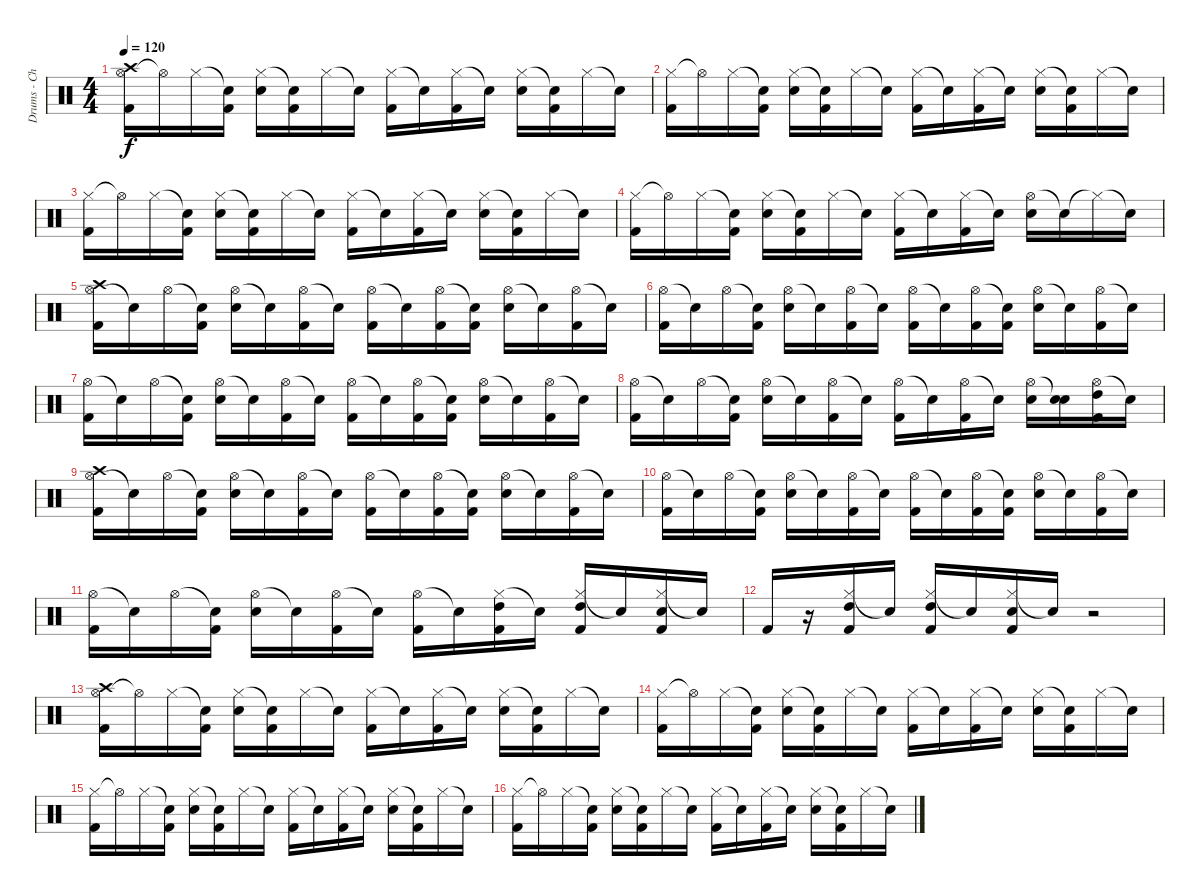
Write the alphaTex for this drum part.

\track ("Drums - Chad" "Drums - Ch") {instrument percussion}
\staff {score}
\articulation defaults
\ts (4 4)
\tempo 120
\clef neutral
\ks c
("Hi-Hat (open)" "Kick (hit) 2" "Crash high (hit)").16{dy f} "Hi-Hat (open)"{t}.16 "Hi-Hat (closed)".16 ("Snare (hit)"{t} "Kick (hit) 2").16 ("Hi-Hat (closed)" "Electric Snare (hit)").16 ("Snare (hit)"{t} "Kick (hit) 2").16 "Hi-Hat (closed)".16 "Snare (hit)"{t}.16 ("Hi-Hat (closed)" "Kick (hit) 2").16 "Snare (hit)"{t}.16 ("Hi-Hat (closed)" "Kick (hit) 2").16 "Snare (hit)"{t}.16 ("Hi-Hat (closed)" "Electric Snare (hit)").16 ("Snare (hit)"{t} "Kick (hit) 2").16 "Hi-Hat (closed)".16 "Snare (hit)"{t}.16 |
("Hi-Hat (closed)" "Kick (hit) 2").16 "Hi-Hat (open)"{t}.16 "Hi-Hat (closed)".16 ("Snare (hit)"{t} "Kick (hit) 2").16 ("Hi-Hat (closed)" "Electric Snare (hit)").16 ("Snare (hit)"{t} "Kick (hit) 2").16 "Hi-Hat (closed)".16 "Snare (hit)"{t}.16 ("Hi-Hat (closed)" "Kick (hit) 2").16 "Snare (hit)"{t}.16 ("Hi-Hat (closed)" "Kick (hit) 2").16 "Snare (hit)"{t}.16 ("Hi-Hat (closed)" "Electric Snare (hit)").16 ("Snare (hit)"{t} "Kick (hit) 2").16 "Hi-Hat (closed)".16 "Snare (hit)"{t}.16 |
("Hi-Hat (closed)" "Kick (hit) 2").16 "Hi-Hat (open)"{t}.16 "Hi-Hat (closed)".16 ("Snare (hit)"{t} "Kick (hit) 2").16 ("Hi-Hat (closed)" "Electric Snare (hit)").16 ("Snare (hit)"{t} "Kick (hit) 2").16 "Hi-Hat (closed)".16 "Snare (hit)"{t}.16 ("Hi-Hat (closed)" "Kick (hit) 2").16 "Snare (hit)"{t}.16 ("Hi-Hat (closed)" "Kick (hit) 2").16 "Snare (hit)"{t}.16 ("Hi-Hat (closed)" "Electric Snare (hit)").16 ("Snare (hit)"{t} "Kick (hit) 2").16 "Hi-Hat (closed)".16 "Snare (hit)"{t}.16 |
("Hi-Hat (closed)" "Kick (hit) 2").16 "Hi-Hat (open)"{t}.16 "Hi-Hat (closed)".16 ("Snare (hit)"{t} "Kick (hit) 2").16 ("Hi-Hat (closed)" "Electric Snare (hit)").16 ("Snare (hit)"{t} "Kick (hit) 2").16 "Hi-Hat (closed)".16 "Snare (hit)"{t}.16 ("Hi-Hat (closed)" "Kick (hit) 2").16 "Snare (hit)"{t}.16 ("Hi-Hat (closed)" "Kick (hit) 2").16 "Snare (hit)"{t}.16 ("Hi-Hat (open)" "Electric Snare (hit)").16 "Snare (hit)"{t}.16 "Hi-Hat (closed)"{t}.16 "Snare (hit)"{t}.16 |
("Hi-Hat (open)" "Kick (hit) 2" "Crash high (hit)").16{volume 14} "Snare (hit)"{t}.16 "Hi-Hat (open)".16 ("Snare (hit)"{t} "Kick (hit) 2").16 ("Hi-Hat (open)" "Electric Snare (hit)").16 "Snare (hit)"{t}.16 ("Hi-Hat (open)" "Kick (hit) 2").16 "Snare (hit)"{t}.16 ("Hi-Hat (open)" "Kick (hit) 2").16 "Snare (hit)"{t}.16 ("Hi-Hat (open)" "Kick (hit) 2").16 ("Snare (hit)"{t} "Kick (hit) 2").16 ("Hi-Hat (open)" "Electric Snare (hit)").16 "Snare (hit)"{t}.16 ("Hi-Hat (open)" "Kick (hit) 2").16 "Snare (hit)"{t}.16 |
("Hi-Hat (open)" "Kick (hit) 2").16 "Snare (hit)"{t}.16 "Hi-Hat (open)".16 ("Snare (hit)"{t} "Kick (hit) 2").16 ("Hi-Hat (open)" "Electric Snare (hit)").16 "Snare (hit)"{t}.16 ("Hi-Hat (open)" "Kick (hit) 2").16 "Snare (hit)"{t}.16 ("Hi-Hat (open)" "Kick (hit) 2").16 "Snare (hit)"{t}.16 ("Hi-Hat (open)" "Kick (hit) 2").16 ("Snare (hit)"{t} "Kick (hit) 2").16 ("Hi-Hat (open)" "Electric Snare (hit)").16 "Snare (hit)"{t}.16 ("Hi-Hat (open)" "Kick (hit) 2").16 "Snare (hit)"{t}.16 |
("Hi-Hat (open)" "Kick (hit) 2").16 "Snare (hit)"{t}.16 "Hi-Hat (open)".16 ("Snare (hit)"{t} "Kick (hit) 2").16 ("Hi-Hat (open)" "Electric Snare (hit)").16 "Snare (hit)"{t}.16 ("Hi-Hat (open)" "Kick (hit) 2").16 "Snare (hit)"{t}.16 ("Hi-Hat (open)" "Kick (hit) 2").16 "Snare (hit)"{t}.16 ("Hi-Hat (open)" "Kick (hit) 2").16 ("Snare (hit)"{t} "Kick (hit) 2").16 ("Hi-Hat (open)" "Electric Snare (hit)").16 "Snare (hit)"{t}.16 ("Hi-Hat (open)" "Kick (hit) 2").16 "Snare (hit)"{t}.16 |
("Hi-Hat (open)" "Kick (hit) 2").16 "Snare (hit)"{t}.16 "Hi-Hat (open)".16 ("Snare (hit)"{t} "Kick (hit) 2").16 ("Hi-Hat (open)" "Electric Snare (hit)").16 "Snare (hit)"{t}.16 ("Hi-Hat (open)" "Kick (hit) 2").16 "Snare (hit)"{t}.16 ("Hi-Hat (open)" "Kick (hit) 2").16 "Snare (hit)"{t}.16 ("Hi-Hat (open)" "Kick (hit) 2").16 "Snare (hit)"{t}.16 ("Hi-Hat (open)" "Electric Snare (hit)").16 ("Snare (hit)"{t} "Electric Snare (hit)").16 ("Hi-Hat (open)" "Kick (hit) 2" "High Tom (hit)").16 "Snare (hit)"{t}.16 |
("Hi-Hat (open)" "Kick (hit) 2" "Crash high (hit)").16{volume 14} "Snare (hit)"{t}.16 "Hi-Hat (open)".16 ("Snare (hit)"{t} "Kick (hit) 2").16 ("Hi-Hat (open)" "Electric Snare (hit)").16 "Snare (hit)"{t}.16 ("Hi-Hat (open)" "Kick (hit) 2").16 "Snare (hit)"{t}.16 ("Hi-Hat (open)" "Kick (hit) 2").16 "Snare (hit)"{t}.16 ("Hi-Hat (open)" "Kick (hit) 2").16 ("Snare (hit)"{t} "Kick (hit) 2").16 ("Hi-Hat (open)" "Electric Snare (hit)").16 "Snare (hit)"{t}.16 ("Hi-Hat (open)" "Kick (hit) 2").16 "Snare (hit)"{t}.16 |
("Hi-Hat (open)" "Kick (hit) 2").16 "Snare (hit)"{t}.16 "Hi-Hat (open)".16 ("Snare (hit)"{t} "Kick (hit) 2").16 ("Hi-Hat (open)" "Electric Snare (hit)").16 "Snare (hit)"{t}.16 ("Hi-Hat (open)" "Kick (hit) 2").16 "Snare (hit)"{t}.16 ("Hi-Hat (open)" "Kick (hit) 2").16 "Snare (hit)"{t}.16 ("Hi-Hat (open)" "Kick (hit) 2").16 ("Snare (hit)"{t} "Kick (hit) 2").16 ("Hi-Hat (open)" "Electric Snare (hit)").16 "Snare (hit)"{t}.16 ("Hi-Hat (open)" "Kick (hit) 2").16 "Snare (hit)"{t}.16 |
("Hi-Hat (open)" "Kick (hit) 2").16 "Snare (hit)"{t}.16 "Hi-Hat (open)".16 ("Snare (hit)"{t} "Kick (hit) 2").16 ("Hi-Hat (open)" "Electric Snare (hit)").16 "Snare (hit)"{t}.16 ("Hi-Hat (open)" "Kick (hit) 2").16 "Snare (hit)"{t}.16 ("Hi-Hat (open)" "Kick (hit) 2").16 "Snare (hit)"{t}.16 ("Hi-Hat (closed)" "Kick (hit) 2" "High Tom (hit)").16 "Snare (hit)"{t}.16 ("Hi-Hat (closed)" "Kick (hit) 2" "High Tom (hit)").16 "Snare (hit)"{t}.16 ("Hi-Hat (closed)" "Kick (hit) 2" "Electric Snare (hit)").16 "Snare (hit)"{t}.16 |
"Kick (hit) 2".16 r.16 ("Hi-Hat (closed)" "Kick (hit) 2" "High Tom (hit)").16 "Snare (hit)"{t}.16 ("Hi-Hat (closed)" "Kick (hit) 2" "High Tom (hit)").16 "Snare (hit)"{t}.16 ("Hi-Hat (closed)" "Kick (hit) 2" "Electric Snare (hit)").16 "Snare (hit)"{t}.16 r.2 |
("Hi-Hat (open)" "Kick (hit) 2" "Crash high (hit)").16 "Hi-Hat (open)"{t}.16 "Hi-Hat (closed)".16 ("Snare (hit)"{t} "Kick (hit) 2").16 ("Hi-Hat (closed)" "Electric Snare (hit)").16 ("Snare (hit)"{t} "Kick (hit) 2").16 "Hi-Hat (closed)".16 "Snare (hit)"{t}.16 ("Hi-Hat (closed)" "Kick (hit) 2").16 "Snare (hit)"{t}.16 ("Hi-Hat (closed)" "Kick (hit) 2").16 "Snare (hit)"{t}.16 ("Hi-Hat (closed)" "Electric Snare (hit)").16 ("Snare (hit)"{t} "Kick (hit) 2").16 "Hi-Hat (closed)".16 "Snare (hit)"{t}.16 |
("Hi-Hat (closed)" "Kick (hit) 2").16 "Hi-Hat (open)"{t}.16 "Hi-Hat (closed)".16 ("Snare (hit)"{t} "Kick (hit) 2").16 ("Hi-Hat (closed)" "Electric Snare (hit)").16 ("Snare (hit)"{t} "Kick (hit) 2").16 "Hi-Hat (closed)".16 "Snare (hit)"{t}.16 ("Hi-Hat (closed)" "Kick (hit) 2").16 "Snare (hit)"{t}.16 ("Hi-Hat (closed)" "Kick (hit) 2").16 "Snare (hit)"{t}.16 ("Hi-Hat (closed)" "Electric Snare (hit)").16 ("Snare (hit)"{t} "Kick (hit) 2").16 "Hi-Hat (closed)".16 "Snare (hit)"{t}.16 |
("Hi-Hat (closed)" "Kick (hit) 2").16 "Hi-Hat (open)"{t}.16 "Hi-Hat (closed)".16 ("Snare (hit)"{t} "Kick (hit) 2").16 ("Hi-Hat (closed)" "Electric Snare (hit)").16 ("Snare (hit)"{t} "Kick (hit) 2").16 "Hi-Hat (closed)".16 "Snare (hit)"{t}.16 ("Hi-Hat (closed)" "Kick (hit) 2").16 "Snare (hit)"{t}.16 ("Hi-Hat (closed)" "Kick (hit) 2").16 "Snare (hit)"{t}.16 ("Hi-Hat (closed)" "Electric Snare (hit)").16 ("Snare (hit)"{t} "Kick (hit) 2").16 "Hi-Hat (closed)".16 "Snare (hit)"{t}.16 |
("Hi-Hat (closed)" "Kick (hit) 2").16 "Hi-Hat (open)"{t}.16 "Hi-Hat (closed)".16 ("Snare (hit)"{t} "Kick (hit) 2").16 ("Hi-Hat (closed)" "Electric Snare (hit)").16 ("Snare (hit)"{t} "Kick (hit) 2").16 "Hi-Hat (closed)".16 "Snare (hit)"{t}.16 ("Hi-Hat (closed)" "Kick (hit) 2").16 "Snare (hit)"{t}.16 ("Hi-Hat (closed)" "Kick (hit) 2").16 "Snare (hit)"{t}.16 ("Hi-Hat (closed)" "Electric Snare (hit)").16 ("Snare (hit)"{t} "Kick (hit) 2").16 "Hi-Hat (closed)".16 "Snare (hit)"{t}.16
